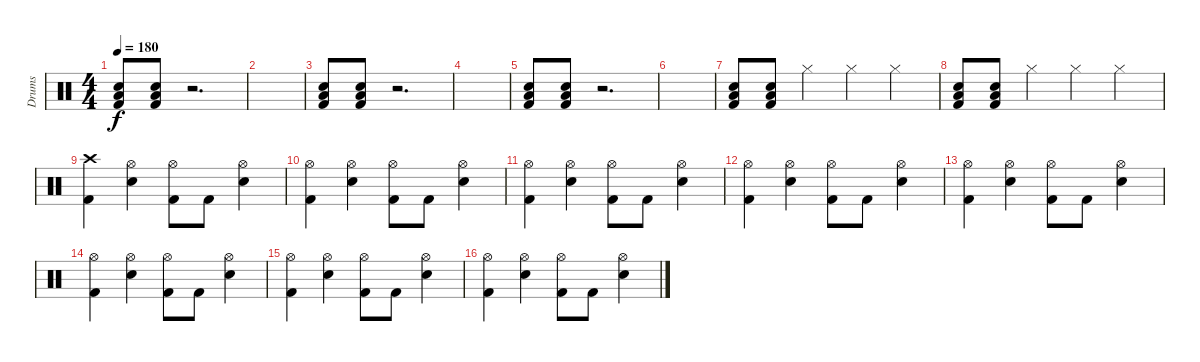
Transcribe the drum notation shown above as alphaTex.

\track ("Drums" "Drums") {instrument percussion}
\staff {score}
\articulation defaults
\ts (4 4)
\tempo 180
\clef neutral
\ks c
("Snare (hit) 2" "Low Floor Tom (hit)" "Kick (hit) 2").8{dy f} ("Snare (hit) 2" "Low Floor Tom (hit)" "Kick (hit) 2").8 r.2{d} |
|
("Snare (hit) 2" "Low Floor Tom (hit)" "Kick (hit) 2").8 ("Snare (hit) 2" "Low Floor Tom (hit)" "Kick (hit) 2").8 r.2{d} |
|
("Snare (hit) 2" "Low Floor Tom (hit)" "Kick (hit) 2").8 ("Snare (hit) 2" "Low Floor Tom (hit)" "Kick (hit) 2").8 r.2{d} |
|
("Snare (hit) 2" "Low Floor Tom (hit)" "Kick (hit) 2").8 ("Snare (hit) 2" "Low Floor Tom (hit)" "Kick (hit) 2").8 "Hi-Hat (closed)".4 "Hi-Hat (closed)".4 "Hi-Hat (closed)".4 |
("Snare (hit) 2" "Low Floor Tom (hit)" "Kick (hit) 2").8 ("Snare (hit) 2" "Low Floor Tom (hit)" "Kick (hit) 2").8 "Hi-Hat (closed)".4 "Hi-Hat (closed)".4 "Hi-Hat (closed)".4 |
("Crash high (hit)" "Kick (hit) 2").4 ("Hi-Hat (open)" "Snare (hit) 2").4 ("Hi-Hat (open)" "Kick (hit) 2").8 "Kick (hit) 2".8 ("Hi-Hat (open)" "Snare (hit) 2").4 |
("Hi-Hat (open)" "Kick (hit) 2").4 ("Hi-Hat (open)" "Snare (hit) 2").4 ("Hi-Hat (open)" "Kick (hit) 2").8 "Kick (hit) 2".8 ("Hi-Hat (open)" "Snare (hit) 2").4 |
("Hi-Hat (open)" "Kick (hit) 2").4 ("Hi-Hat (open)" "Snare (hit) 2").4 ("Hi-Hat (open)" "Kick (hit) 2").8 "Kick (hit) 2".8 ("Hi-Hat (open)" "Snare (hit) 2").4 |
("Hi-Hat (open)" "Kick (hit) 2").4 ("Hi-Hat (open)" "Snare (hit) 2").4 ("Hi-Hat (open)" "Kick (hit) 2").8 "Kick (hit) 2".8 ("Hi-Hat (open)" "Snare (hit) 2").4 |
("Hi-Hat (open)" "Kick (hit) 2").4 ("Hi-Hat (open)" "Snare (hit) 2").4 ("Hi-Hat (open)" "Kick (hit) 2").8 "Kick (hit) 2".8 ("Hi-Hat (open)" "Snare (hit) 2").4 |
("Hi-Hat (open)" "Kick (hit) 2").4 ("Hi-Hat (open)" "Snare (hit) 2").4 ("Hi-Hat (open)" "Kick (hit) 2").8 "Kick (hit) 2".8 ("Hi-Hat (open)" "Snare (hit) 2").4 |
("Hi-Hat (open)" "Kick (hit) 2").4 ("Hi-Hat (open)" "Snare (hit) 2").4 ("Hi-Hat (open)" "Kick (hit) 2").8 "Kick (hit) 2".8 ("Hi-Hat (open)" "Snare (hit) 2").4 |
("Hi-Hat (open)" "Kick (hit) 2").4 ("Hi-Hat (open)" "Snare (hit) 2").4 ("Hi-Hat (open)" "Kick (hit) 2").8 "Kick (hit) 2".8 ("Hi-Hat (open)" "Snare (hit) 2").4
